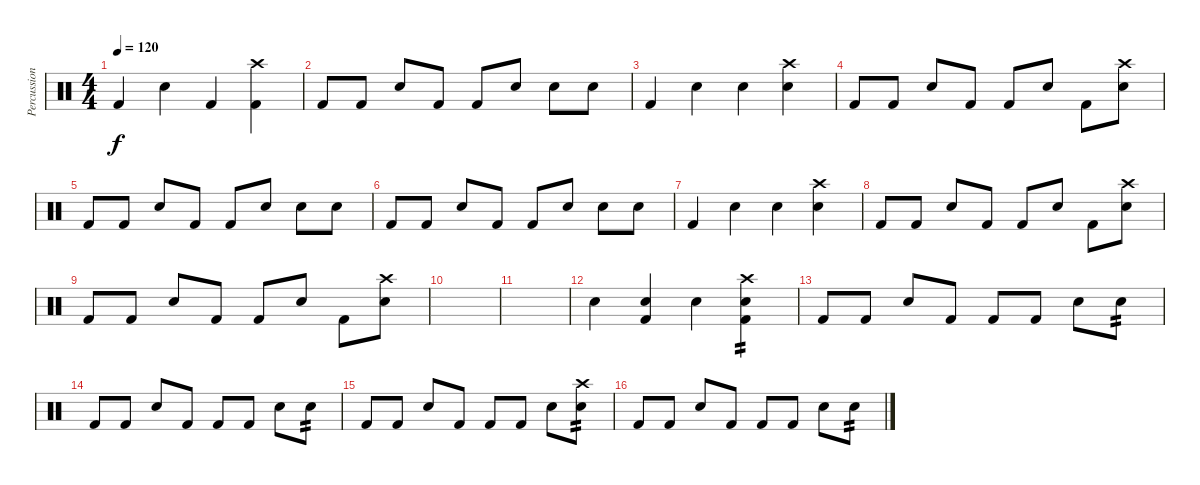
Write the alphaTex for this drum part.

\track ("Percussion" "Percussion") {instrument percussion}
\staff {score}
\articulation defaults
\ts (4 4)
\tempo 120
\clef neutral
\ks c "Kick (hit) 2".4{dy f} "Snare (hit) 2".4 "Kick (hit) 2".4
("Kick (hit) 2" "Crash high (hit)").4 |
"Kick (hit) 2".8 "Kick (hit) 2".8 "Snare (hit) 2".8 "Kick (hit) 2".8 "Kick (hit) 2".8 "Snare (hit) 2".8 "Snare (hit) 2".8 "Snare (hit) 2".8 |
"Kick (hit) 2".4 "Snare (hit) 2".4 "Snare (hit) 2".4 ("Snare (hit) 2" "Crash high (hit)").4 |
"Kick (hit) 2".8 "Kick (hit) 2".8 "Snare (hit) 2".8 "Kick (hit) 2".8 "Kick (hit) 2".8 "Snare (hit) 2".8 "Kick (hit) 2".8 ("Snare (hit) 2" "Crash high (hit)").8 |
"Kick (hit) 2".8 "Kick (hit) 2".8 "Snare (hit) 2".8 "Kick (hit) 2".8 "Kick (hit) 2".8 "Snare (hit) 2".8 "Snare (hit) 2".8 "Snare (hit) 2".8 |
"Kick (hit) 2".8 "Kick (hit) 2".8 "Snare (hit) 2".8 "Kick (hit) 2".8 "Kick (hit) 2".8 "Snare (hit) 2".8 "Snare (hit) 2".8 "Snare (hit) 2".8 |
"Kick (hit) 2".4 "Snare (hit) 2".4 "Snare (hit) 2".4 ("Snare (hit) 2" "Crash high (hit)").4 |
"Kick (hit) 2".8 "Kick (hit) 2".8 "Snare (hit) 2".8 "Kick (hit) 2".8 "Kick (hit) 2".8 "Snare (hit) 2".8 "Kick (hit) 2".8 ("Snare (hit) 2" "Crash high (hit)").8 |
"Kick (hit) 2".8 "Kick (hit) 2".8 "Snare (hit) 2".8 "Kick (hit) 2".8 "Kick (hit) 2".8 "Snare (hit) 2".8 "Kick (hit) 2".8 ("Snare (hit) 2" "Crash high (hit)").8 |
|
|
"Snare (hit) 2".4 ("Kick (hit) 2" "Snare (hit) 2").4 "Snare (hit) 2".4 ("Kick (hit) 2" "Snare (hit) 2" "Crash high (hit)").4{tp 2} |
"Kick (hit) 2".8 "Kick (hit) 2".8 "Snare (hit) 2".8 "Kick (hit) 2".8 "Kick (hit) 2".8 "Kick (hit) 2".8 "Snare (hit) 2".8 "Snare (hit) 2".8{tp 2} |
"Kick (hit) 2".8 "Kick (hit) 2".8 "Snare (hit) 2".8 "Kick (hit) 2".8 "Kick (hit) 2".8 "Kick (hit) 2".8 "Snare (hit) 2".8 "Snare (hit) 2".8{tp 2} |
"Kick (hit) 2".8 "Kick (hit) 2".8 "Snare (hit) 2".8 "Kick (hit) 2".8 "Kick (hit) 2".8 "Kick (hit) 2".8 "Snare (hit) 2".8 ("Crash high (hit)" "Snare (hit) 2").8{tp 2} |
"Kick (hit) 2".8 "Kick (hit) 2".8 "Snare (hit) 2".8 "Kick (hit) 2".8 "Kick (hit) 2".8 "Kick (hit) 2".8 "Snare (hit) 2".8 "Snare (hit) 2".8{tp 2}
